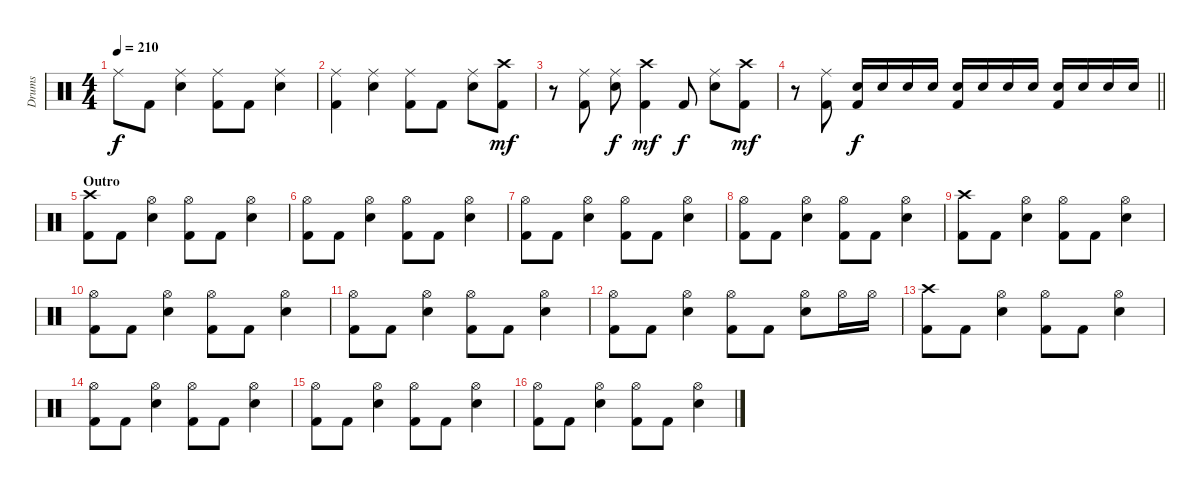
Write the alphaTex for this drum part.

\track ("Drums" "Drums") {instrument percussion}
\staff {score}
\articulation defaults
\ts (4 4)
\tempo 210
\clef neutral
\ks c "Ride (middle)".8{dy f} "Kick (hit) 2".8
("Ride (middle)" "Snare (hit) 2").4 ("Ride (middle)" "Kick (hit) 2").8 "Kick (hit) 2".8 ("Ride (middle)" "Snare (hit) 2").4 |
("Ride (middle)" "Kick (hit) 2").4 ("Ride (middle)" "Snare (hit) 2").4 ("Ride (middle)" "Kick (hit) 2").8 "Kick (hit) 2".8 ("Ride (middle)" "Snare (hit) 2").8 ("Crash high (hit)" "Kick (hit) 2").8{dy mf} |
r.8 ("Ride (middle)" "Kick (hit) 2").8 ("Ride (middle)" "Snare (hit) 2").8{dy f} ("Crash high (hit)" "Kick (hit) 2").4{dy mf} "Kick (hit) 2".8{dy f} ("Ride (middle)" "Snare (hit) 2").8 ("Crash high (hit)" "Kick (hit) 2").8{dy mf} |
\barLineRight lightlight
r.8 ("Ride (middle)" "Kick (hit) 2").8 ("Snare (hit) 2" "Kick (hit) 2").16{dy f} "Snare (hit) 2".16 "Snare (hit) 2".16 "Snare (hit) 2".16 ("Snare (hit) 2" "Kick (hit) 2").16 "Snare (hit) 2".16 "Snare (hit) 2".16 "Snare (hit) 2".16 ("Snare (hit) 2" "Kick (hit) 2").16 "Snare (hit) 2".16 "Snare (hit) 2".16 "Snare (hit) 2".16 |
\section ("" "Outro")
("Crash high (hit)" "Kick (hit) 2").8 "Kick (hit) 2".8 ("Hi-Hat (open)" "Snare (hit) 2").4 ("Hi-Hat (open)" "Kick (hit) 2").8 "Kick (hit) 2".8 ("Hi-Hat (open)" "Snare (hit) 2").4 |
("Hi-Hat (open)" "Kick (hit) 2").8 "Kick (hit) 2".8 ("Hi-Hat (open)" "Snare (hit) 2").4 ("Hi-Hat (open)" "Kick (hit) 2").8 "Kick (hit) 2".8 ("Hi-Hat (open)" "Snare (hit) 2").4 |
("Hi-Hat (open)" "Kick (hit) 2").8 "Kick (hit) 2".8 ("Hi-Hat (open)" "Snare (hit) 2").4 ("Hi-Hat (open)" "Kick (hit) 2").8 "Kick (hit) 2".8 ("Hi-Hat (open)" "Snare (hit) 2").4 |
("Hi-Hat (open)" "Kick (hit) 2").8 "Kick (hit) 2".8 ("Hi-Hat (open)" "Snare (hit) 2").4 ("Hi-Hat (open)" "Kick (hit) 2").8 "Kick (hit) 2".8 ("Hi-Hat (open)" "Snare (hit) 2").4 |
("Crash high (hit)" "Kick (hit) 2").8 "Kick (hit) 2".8 ("Hi-Hat (open)" "Snare (hit) 2").4 ("Hi-Hat (open)" "Kick (hit) 2").8 "Kick (hit) 2".8 ("Hi-Hat (open)" "Snare (hit) 2").4 |
("Hi-Hat (open)" "Kick (hit) 2").8 "Kick (hit) 2".8 ("Hi-Hat (open)" "Snare (hit) 2").4 ("Hi-Hat (open)" "Kick (hit) 2").8 "Kick (hit) 2".8 ("Hi-Hat (open)" "Snare (hit) 2").4 |
("Hi-Hat (open)" "Kick (hit) 2").8 "Kick (hit) 2".8 ("Hi-Hat (open)" "Snare (hit) 2").4 ("Hi-Hat (open)" "Kick (hit) 2").8 "Kick (hit) 2".8 ("Hi-Hat (open)" "Snare (hit) 2").4 |
("Hi-Hat (open)" "Kick (hit) 2").8 "Kick (hit) 2".8 ("Hi-Hat (open)" "Snare (hit) 2").4 ("Hi-Hat (open)" "Kick (hit) 2").8 "Kick (hit) 2".8 ("Hi-Hat (open)" "Snare (hit) 2").8 "Hi-Hat (open)".16 "Hi-Hat (open)".16 |
("Crash high (hit)" "Kick (hit) 2").8 "Kick (hit) 2".8 ("Hi-Hat (open)" "Snare (hit) 2").4 ("Hi-Hat (open)" "Kick (hit) 2").8 "Kick (hit) 2".8 ("Hi-Hat (open)" "Snare (hit) 2").4 |
("Hi-Hat (open)" "Kick (hit) 2").8 "Kick (hit) 2".8 ("Hi-Hat (open)" "Snare (hit) 2").4 ("Hi-Hat (open)" "Kick (hit) 2").8 "Kick (hit) 2".8 ("Hi-Hat (open)" "Snare (hit) 2").4 |
("Hi-Hat (open)" "Kick (hit) 2").8 "Kick (hit) 2".8 ("Hi-Hat (open)" "Snare (hit) 2").4 ("Hi-Hat (open)" "Kick (hit) 2").8 "Kick (hit) 2".8 ("Hi-Hat (open)" "Snare (hit) 2").4 |
("Hi-Hat (open)" "Kick (hit) 2").8 "Kick (hit) 2".8 ("Hi-Hat (open)" "Snare (hit) 2").4 ("Hi-Hat (open)" "Kick (hit) 2").8 "Kick (hit) 2".8 ("Hi-Hat (open)" "Snare (hit) 2").4
